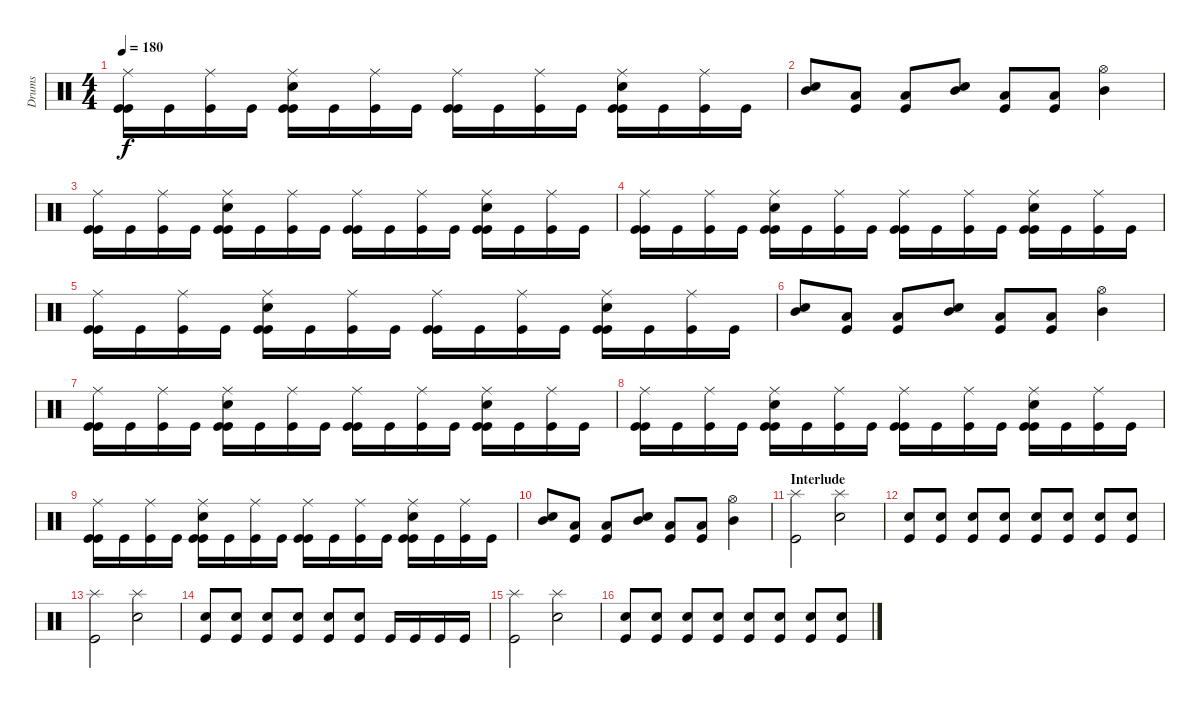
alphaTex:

\track ("Drums" "Drums") {instrument percussion}
\staff {score}
\articulation defaults
\ts (4 4)
\tempo 180
\clef neutral
\ks c
("Ride (middle)" "Kick (hit)" "Kick (hit)").16{dy f} "Kick (hit)".16 ("Ride (middle)" "Kick (hit)").16 "Kick (hit)".16 ("Ride (middle)" "Electric Snare (hit)" "Kick (hit)" "Kick (hit)").16 "Kick (hit)".16 ("Ride (middle)" "Kick (hit)").16 "Kick (hit)".16 ("Ride (middle)" "Kick (hit)" "Kick (hit)").16 "Kick (hit)".16 ("Ride (middle)" "Kick (hit)").16 "Kick (hit)".16 ("Ride (middle)" "Electric Snare (hit)" "Kick (hit)" "Kick (hit)").16 "Kick (hit)".16 ("Ride (middle)" "Kick (hit)").16 "Kick (hit)".16 |
("Electric Snare (hit)" "Mid Tom (hit)").8 ("Low Tom (hit)" "Kick (hit)").8 ("Low Tom (hit)" "Kick (hit)").8 ("Electric Snare (hit)" "Mid Tom (hit)").8 ("Low Tom (hit)" "Kick (hit)").8 ("Low Tom (hit)" "Kick (hit)").8 ("Hi-Hat (open)" "Mid Tom (hit)").4 |
("Ride (middle)" "Kick (hit)" "Kick (hit)").16 "Kick (hit)".16 ("Ride (middle)" "Kick (hit)").16 "Kick (hit)".16 ("Ride (middle)" "Electric Snare (hit)" "Kick (hit)" "Kick (hit)").16 "Kick (hit)".16 ("Ride (middle)" "Kick (hit)").16 "Kick (hit)".16 ("Ride (middle)" "Kick (hit)" "Kick (hit)").16 "Kick (hit)".16 ("Ride (middle)" "Kick (hit)").16 "Kick (hit)".16 ("Ride (middle)" "Electric Snare (hit)" "Kick (hit)" "Kick (hit)").16 "Kick (hit)".16 ("Ride (middle)" "Kick (hit)").16 "Kick (hit)".16 |
("Ride (middle)" "Kick (hit)" "Kick (hit)").16 "Kick (hit)".16 ("Ride (middle)" "Kick (hit)").16 "Kick (hit)".16 ("Ride (middle)" "Electric Snare (hit)" "Kick (hit)" "Kick (hit)").16 "Kick (hit)".16 ("Ride (middle)" "Kick (hit)").16 "Kick (hit)".16 ("Ride (middle)" "Kick (hit)" "Kick (hit)").16 "Kick (hit)".16 ("Ride (middle)" "Kick (hit)").16 "Kick (hit)".16 ("Ride (middle)" "Electric Snare (hit)" "Kick (hit)" "Kick (hit)").16 "Kick (hit)".16 ("Ride (middle)" "Kick (hit)").16 "Kick (hit)".16 |
("Ride (middle)" "Kick (hit)" "Kick (hit)").16 "Kick (hit)".16 ("Ride (middle)" "Kick (hit)").16 "Kick (hit)".16 ("Ride (middle)" "Electric Snare (hit)" "Kick (hit)" "Kick (hit)").16 "Kick (hit)".16 ("Ride (middle)" "Kick (hit)").16 "Kick (hit)".16 ("Ride (middle)" "Kick (hit)" "Kick (hit)").16 "Kick (hit)".16 ("Ride (middle)" "Kick (hit)").16 "Kick (hit)".16 ("Ride (middle)" "Electric Snare (hit)" "Kick (hit)" "Kick (hit)").16 "Kick (hit)".16 ("Ride (middle)" "Kick (hit)").16 "Kick (hit)".16 |
("Electric Snare (hit)" "Mid Tom (hit)").8 ("Low Tom (hit)" "Kick (hit)").8 ("Low Tom (hit)" "Kick (hit)").8 ("Electric Snare (hit)" "Mid Tom (hit)").8 ("Low Tom (hit)" "Kick (hit)").8 ("Low Tom (hit)" "Kick (hit)").8 ("Hi-Hat (open)" "Mid Tom (hit)").4 |
("Ride (middle)" "Kick (hit)" "Kick (hit)").16 "Kick (hit)".16 ("Ride (middle)" "Kick (hit)").16 "Kick (hit)".16 ("Ride (middle)" "Electric Snare (hit)" "Kick (hit)" "Kick (hit)").16 "Kick (hit)".16 ("Ride (middle)" "Kick (hit)").16 "Kick (hit)".16 ("Ride (middle)" "Kick (hit)" "Kick (hit)").16 "Kick (hit)".16 ("Ride (middle)" "Kick (hit)").16 "Kick (hit)".16 ("Ride (middle)" "Electric Snare (hit)" "Kick (hit)" "Kick (hit)").16 "Kick (hit)".16 ("Ride (middle)" "Kick (hit)").16 "Kick (hit)".16 |
("Ride (middle)" "Kick (hit)" "Kick (hit)").16 "Kick (hit)".16 ("Ride (middle)" "Kick (hit)").16 "Kick (hit)".16 ("Ride (middle)" "Electric Snare (hit)" "Kick (hit)" "Kick (hit)").16 "Kick (hit)".16 ("Ride (middle)" "Kick (hit)").16 "Kick (hit)".16 ("Ride (middle)" "Kick (hit)" "Kick (hit)").16 "Kick (hit)".16 ("Ride (middle)" "Kick (hit)").16 "Kick (hit)".16 ("Ride (middle)" "Electric Snare (hit)" "Kick (hit)" "Kick (hit)").16 "Kick (hit)".16 ("Ride (middle)" "Kick (hit)").16 "Kick (hit)".16 |
("Ride (middle)" "Kick (hit)" "Kick (hit)").16 "Kick (hit)".16 ("Ride (middle)" "Kick (hit)").16 "Kick (hit)".16 ("Ride (middle)" "Electric Snare (hit)" "Kick (hit)" "Kick (hit)").16 "Kick (hit)".16 ("Ride (middle)" "Kick (hit)").16 "Kick (hit)".16 ("Ride (middle)" "Kick (hit)" "Kick (hit)").16 "Kick (hit)".16 ("Ride (middle)" "Kick (hit)").16 "Kick (hit)".16 ("Ride (middle)" "Electric Snare (hit)" "Kick (hit)" "Kick (hit)").16 "Kick (hit)".16 ("Ride (middle)" "Kick (hit)").16 "Kick (hit)".16 |
("Electric Snare (hit)" "Mid Tom (hit)").8 ("Low Tom (hit)" "Kick (hit)").8 ("Low Tom (hit)" "Kick (hit)").8 ("Electric Snare (hit)" "Mid Tom (hit)").8 ("Low Tom (hit)" "Kick (hit)").8 ("Low Tom (hit)" "Kick (hit)").8 ("Hi-Hat (open)" "Mid Tom (hit)").4 |
\section ("" "Interlude")
("Splash (hit)" "Kick (hit)").2 ("Splash (hit)" "Electric Snare (hit)").2 |
("Electric Snare (hit)" "Kick (hit)").8 ("Electric Snare (hit)" "Kick (hit)").8 ("Electric Snare (hit)" "Kick (hit)").8 ("Electric Snare (hit)" "Kick (hit)").8 ("Electric Snare (hit)" "Kick (hit)").8 ("Electric Snare (hit)" "Kick (hit)").8 ("Electric Snare (hit)" "Kick (hit)").8 ("Electric Snare (hit)" "Kick (hit)").8 |
("Splash (hit)" "Kick (hit)").2 ("Splash (hit)" "Electric Snare (hit)").2 |
("Electric Snare (hit)" "Kick (hit)").8 ("Electric Snare (hit)" "Kick (hit)").8 ("Electric Snare (hit)" "Kick (hit)").8 ("Electric Snare (hit)" "Kick (hit)").8 ("Electric Snare (hit)" "Kick (hit)").8 ("Electric Snare (hit)" "Kick (hit)").8 "Kick (hit)".16 "Kick (hit)".16 "Kick (hit)".16 "Kick (hit)".16 |
("Splash (hit)" "Kick (hit)").2 ("Splash (hit)" "Electric Snare (hit)").2 |
("Electric Snare (hit)" "Kick (hit)").8 ("Electric Snare (hit)" "Kick (hit)").8 ("Electric Snare (hit)" "Kick (hit)").8 ("Electric Snare (hit)" "Kick (hit)").8 ("Electric Snare (hit)" "Kick (hit)").8 ("Electric Snare (hit)" "Kick (hit)").8 ("Electric Snare (hit)" "Kick (hit)").8 ("Electric Snare (hit)" "Kick (hit)").8
